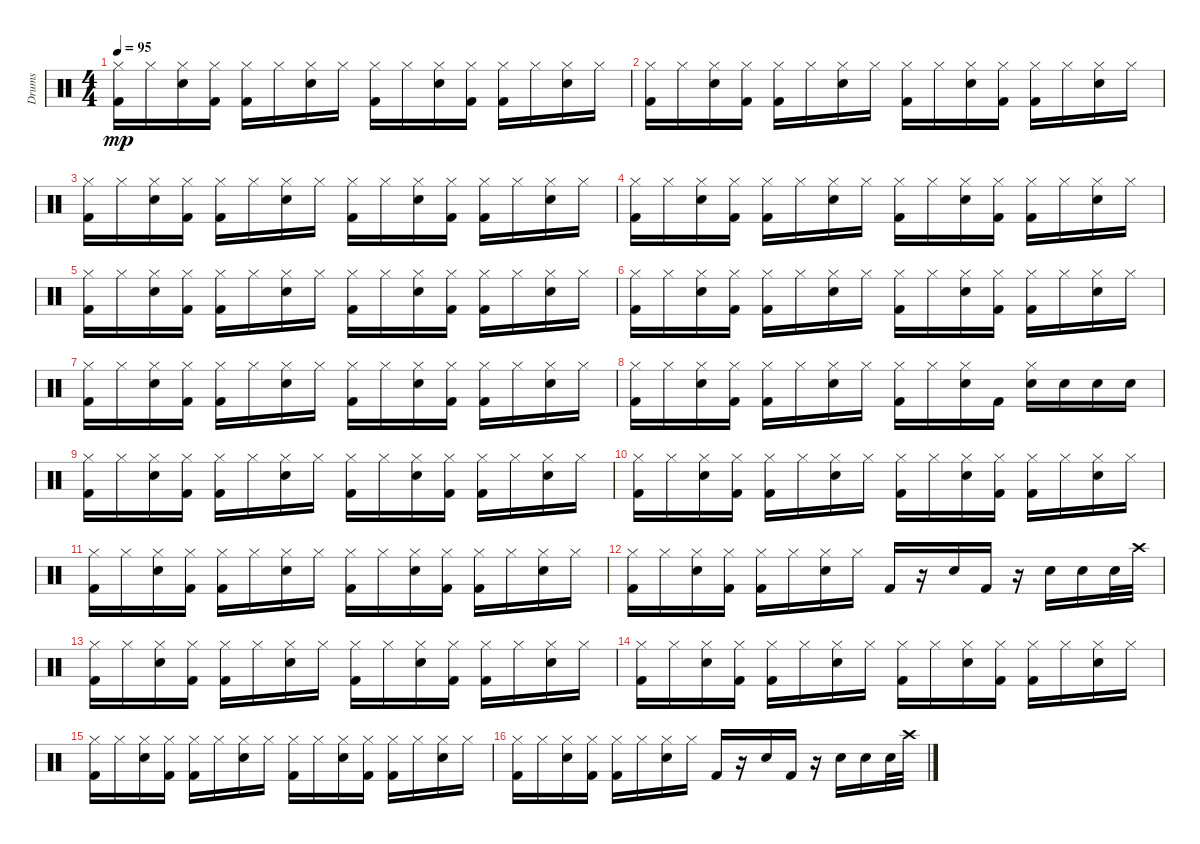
\track ("Drums" "Drums") {instrument percussion}
\staff {score}
\articulation defaults
\ts (4 4)
\tempo 95
\clef neutral
\ks c
("Kick (hit) 2" "Hi-Hat (closed)").16{dy mp} "Hi-Hat (closed)".16 ("Snare (hit) 2" "Hi-Hat (closed)").16 ("Kick (hit) 2" "Hi-Hat (closed)").16 ("Kick (hit) 2" "Hi-Hat (closed)").16 "Hi-Hat (closed)".16 ("Snare (hit) 2" "Hi-Hat (closed)").16 "Hi-Hat (closed)".16 ("Kick (hit) 2" "Hi-Hat (closed)").16 "Hi-Hat (closed)".16 ("Snare (hit) 2" "Hi-Hat (closed)").16 ("Kick (hit) 2" "Hi-Hat (closed)").16 ("Kick (hit) 2" "Hi-Hat (closed)").16 "Hi-Hat (closed)".16 ("Snare (hit) 2" "Hi-Hat (closed)").16 "Hi-Hat (closed)".16 |
("Kick (hit) 2" "Hi-Hat (closed)").16 "Hi-Hat (closed)".16 ("Snare (hit) 2" "Hi-Hat (closed)").16 ("Kick (hit) 2" "Hi-Hat (closed)").16 ("Kick (hit) 2" "Hi-Hat (closed)").16 "Hi-Hat (closed)".16 ("Snare (hit) 2" "Hi-Hat (closed)").16 "Hi-Hat (closed)".16 ("Kick (hit) 2" "Hi-Hat (closed)").16 "Hi-Hat (closed)".16 ("Snare (hit) 2" "Hi-Hat (closed)").16 ("Kick (hit) 2" "Hi-Hat (closed)").16 ("Kick (hit) 2" "Hi-Hat (closed)").16 "Hi-Hat (closed)".16 ("Snare (hit) 2" "Hi-Hat (closed)").16 "Hi-Hat (closed)".16 |
("Kick (hit) 2" "Hi-Hat (closed)").16 "Hi-Hat (closed)".16 ("Snare (hit) 2" "Hi-Hat (closed)").16 ("Kick (hit) 2" "Hi-Hat (closed)").16 ("Kick (hit) 2" "Hi-Hat (closed)").16 "Hi-Hat (closed)".16 ("Snare (hit) 2" "Hi-Hat (closed)").16 "Hi-Hat (closed)".16 ("Kick (hit) 2" "Hi-Hat (closed)").16 "Hi-Hat (closed)".16 ("Snare (hit) 2" "Hi-Hat (closed)").16 ("Kick (hit) 2" "Hi-Hat (closed)").16 ("Kick (hit) 2" "Hi-Hat (closed)").16 "Hi-Hat (closed)".16 ("Snare (hit) 2" "Hi-Hat (closed)").16 "Hi-Hat (closed)".16 |
("Kick (hit) 2" "Hi-Hat (closed)").16 "Hi-Hat (closed)".16 ("Snare (hit) 2" "Hi-Hat (closed)").16 ("Kick (hit) 2" "Hi-Hat (closed)").16 ("Kick (hit) 2" "Hi-Hat (closed)").16 "Hi-Hat (closed)".16 ("Snare (hit) 2" "Hi-Hat (closed)").16 "Hi-Hat (closed)".16 ("Kick (hit) 2" "Hi-Hat (closed)").16 "Hi-Hat (closed)".16 ("Snare (hit) 2" "Hi-Hat (closed)").16 ("Kick (hit) 2" "Hi-Hat (closed)").16 ("Kick (hit) 2" "Hi-Hat (closed)").16 "Hi-Hat (closed)".16 ("Snare (hit) 2" "Hi-Hat (closed)").16 "Hi-Hat (closed)".16 |
("Kick (hit) 2" "Hi-Hat (closed)").16 "Hi-Hat (closed)".16 ("Snare (hit) 2" "Hi-Hat (closed)").16 ("Kick (hit) 2" "Hi-Hat (closed)").16 ("Kick (hit) 2" "Hi-Hat (closed)").16 "Hi-Hat (closed)".16 ("Snare (hit) 2" "Hi-Hat (closed)").16 "Hi-Hat (closed)".16 ("Kick (hit) 2" "Hi-Hat (closed)").16 "Hi-Hat (closed)".16 ("Snare (hit) 2" "Hi-Hat (closed)").16 ("Kick (hit) 2" "Hi-Hat (closed)").16 ("Kick (hit) 2" "Hi-Hat (closed)").16 "Hi-Hat (closed)".16 ("Snare (hit) 2" "Hi-Hat (closed)").16 "Hi-Hat (closed)".16 |
("Kick (hit) 2" "Hi-Hat (closed)").16 "Hi-Hat (closed)".16 ("Snare (hit) 2" "Hi-Hat (closed)").16 ("Kick (hit) 2" "Hi-Hat (closed)").16 ("Kick (hit) 2" "Hi-Hat (closed)").16 "Hi-Hat (closed)".16 ("Snare (hit) 2" "Hi-Hat (closed)").16 "Hi-Hat (closed)".16 ("Kick (hit) 2" "Hi-Hat (closed)").16 "Hi-Hat (closed)".16 ("Snare (hit) 2" "Hi-Hat (closed)").16 ("Kick (hit) 2" "Hi-Hat (closed)").16 ("Kick (hit) 2" "Hi-Hat (closed)").16 "Hi-Hat (closed)".16 ("Snare (hit) 2" "Hi-Hat (closed)").16 "Hi-Hat (closed)".16 |
("Kick (hit) 2" "Hi-Hat (closed)").16 "Hi-Hat (closed)".16 ("Snare (hit) 2" "Hi-Hat (closed)").16 ("Kick (hit) 2" "Hi-Hat (closed)").16 ("Kick (hit) 2" "Hi-Hat (closed)").16 "Hi-Hat (closed)".16 ("Snare (hit) 2" "Hi-Hat (closed)").16 "Hi-Hat (closed)".16 ("Kick (hit) 2" "Hi-Hat (closed)").16 "Hi-Hat (closed)".16 ("Snare (hit) 2" "Hi-Hat (closed)").16 ("Kick (hit) 2" "Hi-Hat (closed)").16 ("Kick (hit) 2" "Hi-Hat (closed)").16 "Hi-Hat (closed)".16 ("Snare (hit) 2" "Hi-Hat (closed)").16 "Hi-Hat (closed)".16 |
("Kick (hit) 2" "Hi-Hat (closed)").16 "Hi-Hat (closed)".16 ("Snare (hit) 2" "Hi-Hat (closed)").16 ("Kick (hit) 2" "Hi-Hat (closed)").16 ("Kick (hit) 2" "Hi-Hat (closed)").16 "Hi-Hat (closed)".16 ("Snare (hit) 2" "Hi-Hat (closed)").16 "Hi-Hat (closed)".16 ("Kick (hit) 2" "Hi-Hat (closed)").16 "Hi-Hat (closed)".16 ("Snare (hit) 2" "Hi-Hat (closed)").16 "Kick (hit) 2".16 ("Electric Snare (hit)" "Hi-Hat (closed)").16 "Electric Snare (hit)".16 "Electric Snare (hit)".16 "Electric Snare (hit)".16 |
("Kick (hit) 2" "Hi-Hat (closed)").16 "Hi-Hat (closed)".16 ("Snare (hit) 2" "Hi-Hat (closed)").16 ("Kick (hit) 2" "Hi-Hat (closed)").16 ("Kick (hit) 2" "Hi-Hat (closed)").16 "Hi-Hat (closed)".16 ("Snare (hit) 2" "Hi-Hat (closed)").16 "Hi-Hat (closed)".16 ("Kick (hit) 2" "Hi-Hat (closed)").16 "Hi-Hat (closed)".16 ("Snare (hit) 2" "Hi-Hat (closed)").16 ("Kick (hit) 2" "Hi-Hat (closed)").16 ("Kick (hit) 2" "Hi-Hat (closed)").16 "Hi-Hat (closed)".16 ("Snare (hit) 2" "Hi-Hat (closed)").16 "Hi-Hat (closed)".16 |
("Kick (hit) 2" "Hi-Hat (closed)").16 "Hi-Hat (closed)".16 ("Snare (hit) 2" "Hi-Hat (closed)").16 ("Kick (hit) 2" "Hi-Hat (closed)").16 ("Kick (hit) 2" "Hi-Hat (closed)").16 "Hi-Hat (closed)".16 ("Snare (hit) 2" "Hi-Hat (closed)").16 "Hi-Hat (closed)".16 ("Kick (hit) 2" "Hi-Hat (closed)").16 "Hi-Hat (closed)".16 ("Snare (hit) 2" "Hi-Hat (closed)").16 ("Kick (hit) 2" "Hi-Hat (closed)").16 ("Kick (hit) 2" "Hi-Hat (closed)").16 "Hi-Hat (closed)".16 ("Snare (hit) 2" "Hi-Hat (closed)").16 "Hi-Hat (closed)".16 |
("Kick (hit) 2" "Hi-Hat (closed)").16 "Hi-Hat (closed)".16 ("Snare (hit) 2" "Hi-Hat (closed)").16 ("Kick (hit) 2" "Hi-Hat (closed)").16 ("Kick (hit) 2" "Hi-Hat (closed)").16 "Hi-Hat (closed)".16 ("Snare (hit) 2" "Hi-Hat (closed)").16 "Hi-Hat (closed)".16 ("Kick (hit) 2" "Hi-Hat (closed)").16 "Hi-Hat (closed)".16 ("Snare (hit) 2" "Hi-Hat (closed)").16 ("Kick (hit) 2" "Hi-Hat (closed)").16 ("Kick (hit) 2" "Hi-Hat (closed)").16 "Hi-Hat (closed)".16 ("Snare (hit) 2" "Hi-Hat (closed)").16 "Hi-Hat (closed)".16 |
("Kick (hit) 2" "Hi-Hat (closed)").16 "Hi-Hat (closed)".16 ("Snare (hit) 2" "Hi-Hat (closed)").16 ("Kick (hit) 2" "Hi-Hat (closed)").16 ("Kick (hit) 2" "Hi-Hat (closed)").16 "Hi-Hat (closed)".16 ("Snare (hit) 2" "Hi-Hat (closed)").16 "Hi-Hat (closed)".16 "Kick (hit) 2".16 r.16 "Snare (hit) 2".16 "Kick (hit) 2".16 r.16 "Snare (hit) 2".16 "Snare (hit) 2".16 "Snare (hit) 2".32 "Crash high (hit)".32 |
("Kick (hit) 2" "Hi-Hat (closed)").16 "Hi-Hat (closed)".16 ("Snare (hit) 2" "Hi-Hat (closed)").16 ("Kick (hit) 2" "Hi-Hat (closed)").16 ("Kick (hit) 2" "Hi-Hat (closed)").16 "Hi-Hat (closed)".16 ("Snare (hit) 2" "Hi-Hat (closed)").16 "Hi-Hat (closed)".16 ("Kick (hit) 2" "Hi-Hat (closed)").16 "Hi-Hat (closed)".16 ("Snare (hit) 2" "Hi-Hat (closed)").16 ("Kick (hit) 2" "Hi-Hat (closed)").16 ("Kick (hit) 2" "Hi-Hat (closed)").16 "Hi-Hat (closed)".16 ("Snare (hit) 2" "Hi-Hat (closed)").16 "Hi-Hat (closed)".16 |
("Kick (hit) 2" "Hi-Hat (closed)").16 "Hi-Hat (closed)".16 ("Snare (hit) 2" "Hi-Hat (closed)").16 ("Kick (hit) 2" "Hi-Hat (closed)").16 ("Kick (hit) 2" "Hi-Hat (closed)").16 "Hi-Hat (closed)".16 ("Snare (hit) 2" "Hi-Hat (closed)").16 "Hi-Hat (closed)".16 ("Kick (hit) 2" "Hi-Hat (closed)").16 "Hi-Hat (closed)".16 ("Snare (hit) 2" "Hi-Hat (closed)").16 ("Kick (hit) 2" "Hi-Hat (closed)").16 ("Kick (hit) 2" "Hi-Hat (closed)").16 "Hi-Hat (closed)".16 ("Snare (hit) 2" "Hi-Hat (closed)").16 "Hi-Hat (closed)".16 |
("Kick (hit) 2" "Hi-Hat (closed)").16 "Hi-Hat (closed)".16 ("Snare (hit) 2" "Hi-Hat (closed)").16 ("Kick (hit) 2" "Hi-Hat (closed)").16 ("Kick (hit) 2" "Hi-Hat (closed)").16 "Hi-Hat (closed)".16 ("Snare (hit) 2" "Hi-Hat (closed)").16 "Hi-Hat (closed)".16 ("Kick (hit) 2" "Hi-Hat (closed)").16 "Hi-Hat (closed)".16 ("Snare (hit) 2" "Hi-Hat (closed)").16 ("Kick (hit) 2" "Hi-Hat (closed)").16 ("Kick (hit) 2" "Hi-Hat (closed)").16 "Hi-Hat (closed)".16 ("Snare (hit) 2" "Hi-Hat (closed)").16 "Hi-Hat (closed)".16 |
("Kick (hit) 2" "Hi-Hat (closed)").16 "Hi-Hat (closed)".16 ("Snare (hit) 2" "Hi-Hat (closed)").16 ("Kick (hit) 2" "Hi-Hat (closed)").16 ("Kick (hit) 2" "Hi-Hat (closed)").16 "Hi-Hat (closed)".16 ("Snare (hit) 2" "Hi-Hat (closed)").16 "Hi-Hat (closed)".16 "Kick (hit) 2".16 r.16 "Snare (hit) 2".16 "Kick (hit) 2".16 r.16 "Snare (hit) 2".16 "Snare (hit) 2".16 "Snare (hit) 2".32 "Crash high (hit)".32
